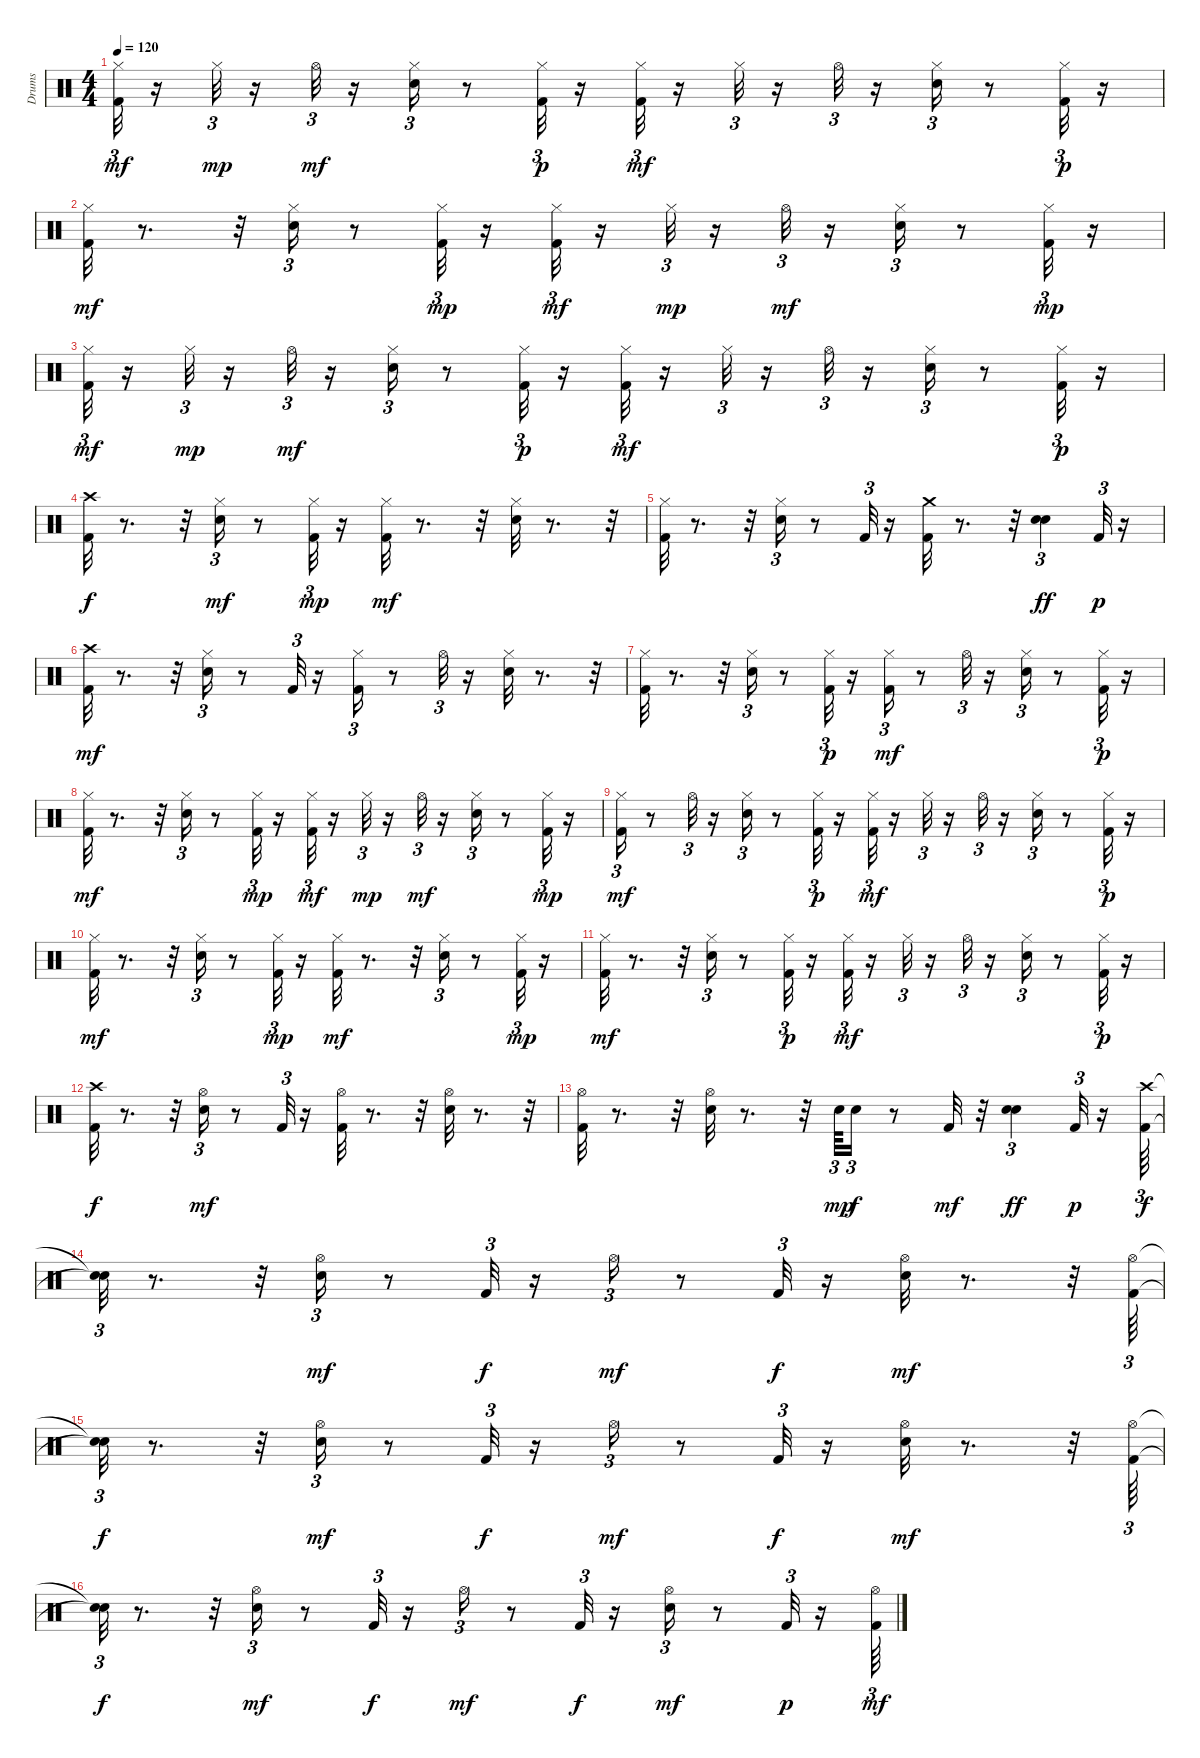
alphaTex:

\track ("Drums" "Drums") {instrument percussion}
\staff {score}
\articulation defaults
\ts (4 4)
\tempo 120
\clef neutral
\ks c
("Kick (hit) 2" "Hi-Hat (closed)").32{tu (3 2) dy mf} r.16 "Hi-Hat (closed)".32{tu (3 2) dy mp} r.16 "Hi-Hat (open)".32{tu (3 2) dy mf} r.16 ("Electric Snare (hit)" "Hi-Hat (closed)").16{tu (3 2)} r.8 ("Kick (hit) 2" "Hi-Hat (closed)").32{tu (3 2) dy p} r.16 ("Kick (hit) 2" "Hi-Hat (closed)").32{tu (3 2) dy mf} r.16 "Hi-Hat (closed)".32{tu (3 2)} r.16 "Hi-Hat (open)".32{tu (3 2)} r.16 ("Electric Snare (hit)" "Hi-Hat (closed)").16{tu (3 2)} r.8 ("Kick (hit) 2" "Hi-Hat (closed)").32{tu (3 2) dy p} r.16 |
("Kick (hit) 2" "Hi-Hat (closed)").32{dy mf} r.8{d} r.32 ("Electric Snare (hit)" "Hi-Hat (closed)").16{tu (3 2)} r.8 ("Kick (hit) 2" "Hi-Hat (closed)").32{tu (3 2) dy mp} r.16 ("Kick (hit) 2" "Hi-Hat (closed)").32{tu (3 2) dy mf} r.16 "Hi-Hat (closed)".32{tu (3 2) dy mp} r.16 "Hi-Hat (open)".32{tu (3 2) dy mf} r.16 ("Electric Snare (hit)" "Hi-Hat (closed)").16{tu (3 2)} r.8 ("Kick (hit) 2" "Hi-Hat (closed)").32{tu (3 2) dy mp} r.16 |
("Kick (hit) 2" "Hi-Hat (closed)").32{tu (3 2) dy mf} r.16 "Hi-Hat (closed)".32{tu (3 2) dy mp} r.16 "Hi-Hat (open)".32{tu (3 2) dy mf} r.16 ("Electric Snare (hit)" "Hi-Hat (closed)").16{tu (3 2)} r.8 ("Kick (hit) 2" "Hi-Hat (closed)").32{tu (3 2) dy p} r.16 ("Kick (hit) 2" "Hi-Hat (closed)").32{tu (3 2) dy mf} r.16 "Hi-Hat (closed)".32{tu (3 2)} r.16 "Hi-Hat (open)".32{tu (3 2)} r.16 ("Electric Snare (hit)" "Hi-Hat (closed)").16{tu (3 2)} r.8 ("Kick (hit) 2" "Hi-Hat (closed)").32{tu (3 2) dy p} r.16 |
("Kick (hit) 2" "Crash high (hit)").32{dy f} r.8{d} r.32 ("Electric Snare (hit)" "Hi-Hat (closed)").16{tu (3 2) dy mf} r.8 ("Kick (hit) 2" "Hi-Hat (closed)").32{tu (3 2) dy mp} r.16 ("Kick (hit) 2" "Hi-Hat (closed)").32{dy mf} r.8{d} r.32 ("Electric Snare (hit)" "Hi-Hat (closed)").32 r.8{d} r.32 |
("Kick (hit) 2" "Hi-Hat (closed)").32 r.8{d} r.32 ("Electric Snare (hit)" "Hi-Hat (closed)").16{tu (3 2)} r.8 "Kick (hit) 2".32{tu (3 2)} r.16 ("Kick (hit) 2" "Crash medium (hit)").32 r.8{d} r.32 ("Electric Snare (hit)" "Electric Snare (hit)").4{tu (3 2) dy ff} "Kick (hit) 2".32{tu (3 2) dy p} r.16 |
("Kick (hit) 2" "Crash high (hit)").32{dy mf} r.8{d} r.32 ("Electric Snare (hit)" "Hi-Hat (closed)").16{tu (3 2)} r.8 "Kick (hit) 2".32{tu (3 2)} r.16 ("Kick (hit) 2" "Hi-Hat (closed)").16{tu (3 2)} r.8 "Hi-Hat (open)".32{tu (3 2)} r.16 ("Electric Snare (hit)" "Hi-Hat (closed)").32 r.8{d} r.32 |
("Kick (hit) 2" "Hi-Hat (closed)").32 r.8{d} r.32 ("Electric Snare (hit)" "Hi-Hat (closed)").16{tu (3 2)} r.8 ("Kick (hit) 2" "Hi-Hat (closed)").32{tu (3 2) dy p} r.16 ("Kick (hit) 2" "Hi-Hat (closed)").16{tu (3 2) dy mf} r.8 "Hi-Hat (open)".32{tu (3 2)} r.16 ("Electric Snare (hit)" "Hi-Hat (closed)").16{tu (3 2)} r.8 ("Kick (hit) 2" "Hi-Hat (closed)").32{tu (3 2) dy p} r.16 |
("Kick (hit) 2" "Hi-Hat (closed)").32{dy mf} r.8{d} r.32 ("Electric Snare (hit)" "Hi-Hat (closed)").16{tu (3 2)} r.8 ("Kick (hit) 2" "Hi-Hat (closed)").32{tu (3 2) dy mp} r.16 ("Kick (hit) 2" "Hi-Hat (closed)").32{tu (3 2) dy mf} r.16 "Hi-Hat (closed)".32{tu (3 2) dy mp} r.16 "Hi-Hat (open)".32{tu (3 2) dy mf} r.16 ("Electric Snare (hit)" "Hi-Hat (closed)").16{tu (3 2)} r.8 ("Kick (hit) 2" "Hi-Hat (closed)").32{tu (3 2) dy mp} r.16 |
("Kick (hit) 2" "Hi-Hat (closed)").16{tu (3 2) dy mf} r.8 "Hi-Hat (open)".32{tu (3 2)} r.16 ("Electric Snare (hit)" "Hi-Hat (closed)").16{tu (3 2)} r.8 ("Kick (hit) 2" "Hi-Hat (closed)").32{tu (3 2) dy p} r.16 ("Kick (hit) 2" "Hi-Hat (closed)").32{tu (3 2) dy mf} r.16 "Hi-Hat (closed)".32{tu (3 2)} r.16 "Hi-Hat (open)".32{tu (3 2)} r.16 ("Electric Snare (hit)" "Hi-Hat (closed)").16{tu (3 2)} r.8 ("Kick (hit) 2" "Hi-Hat (closed)").32{tu (3 2) dy p} r.16 |
("Kick (hit) 2" "Hi-Hat (closed)").32{dy mf} r.8{d} r.32 ("Electric Snare (hit)" "Hi-Hat (closed)").16{tu (3 2)} r.8 ("Kick (hit) 2" "Hi-Hat (closed)").32{tu (3 2) dy mp} r.16 ("Kick (hit) 2" "Hi-Hat (closed)").32{dy mf} r.8{d} r.32 ("Electric Snare (hit)" "Hi-Hat (closed)").16{tu (3 2)} r.8 ("Kick (hit) 2" "Hi-Hat (closed)").32{tu (3 2) dy mp} r.16 |
("Kick (hit) 2" "Hi-Hat (closed)").32{dy mf} r.8{d} r.32 ("Electric Snare (hit)" "Hi-Hat (closed)").16{tu (3 2)} r.8 ("Kick (hit) 2" "Hi-Hat (closed)").32{tu (3 2) dy p} r.16 ("Kick (hit) 2" "Hi-Hat (closed)").32{tu (3 2) dy mf} r.16 "Hi-Hat (closed)".32{tu (3 2)} r.16 "Hi-Hat (open)".32{tu (3 2)} r.16 ("Electric Snare (hit)" "Hi-Hat (closed)").16{tu (3 2)} r.8 ("Kick (hit) 2" "Hi-Hat (closed)").32{tu (3 2) dy p} r.16 |
("Kick (hit) 2" "Crash high (hit)").32{dy f} r.8{d} r.32 ("Electric Snare (hit)" "Hi-Hat (open)").16{tu (3 2) dy mf} r.8 "Kick (hit) 2".32{tu (3 2)} r.16 ("Kick (hit) 2" "Hi-Hat (open)").32 r.8{d} r.32 ("Electric Snare (hit)" "Hi-Hat (open)").32 r.8{d} r.32 |
("Kick (hit) 2" "Hi-Hat (open)").32 r.8{d} r.32 ("Electric Snare (hit)" "Hi-Hat (open)").32 r.8{d} r.32 "Electric Snare (hit)".64{tu (3 2) dy mp} "Electric Snare (hit)".16{tu (3 2) dy f} r.8 "Kick (hit) 2".32{dy mf} r.32 ("Electric Snare (hit)" "Electric Snare (hit)").4{tu (3 2) dy ff} "Kick (hit) 2".32{tu (3 2) dy p} r.16 ("Kick (hit) 2" "Crash high (hit)").64{tu (3 2) dy f} |
("Snare (hit)"{t} "Snare (hit)"{t}).32{tu (3 2)} r.8{d} r.32 ("Electric Snare (hit)" "Hi-Hat (open)").16{tu (3 2) dy mf} r.8 "Kick (hit) 2".32{tu (3 2) dy f} r.16 "Hi-Hat (open)".16{tu (3 2) dy mf} r.8 "Kick (hit) 2".32{tu (3 2) dy f} r.16 ("Electric Snare (hit)" "Hi-Hat (open)").32{dy mf} r.8{d} r.32 ("Kick (hit) 2" "Hi-Hat (open)").64{tu (3 2)} |
("Snare (hit)"{t} "Snare (hit)"{t}).32{tu (3 2) dy f} r.8{d} r.32 ("Electric Snare (hit)" "Hi-Hat (open)").16{tu (3 2) dy mf} r.8 "Kick (hit) 2".32{tu (3 2) dy f} r.16 "Hi-Hat (open)".16{tu (3 2) dy mf} r.8 "Kick (hit) 2".32{tu (3 2) dy f} r.16 ("Electric Snare (hit)" "Hi-Hat (open)").32{dy mf} r.8{d} r.32 ("Kick (hit) 2" "Hi-Hat (open)").64{tu (3 2)} |
("Snare (hit)"{t} "Snare (hit)"{t}).32{tu (3 2) dy f} r.8{d} r.32 ("Electric Snare (hit)" "Hi-Hat (open)").16{tu (3 2) dy mf} r.8 "Kick (hit) 2".32{tu (3 2) dy f} r.16 "Hi-Hat (open)".16{tu (3 2) dy mf} r.8 "Kick (hit) 2".32{tu (3 2) dy f} r.16 ("Electric Snare (hit)" "Hi-Hat (open)").16{tu (3 2) dy mf} r.8 "Kick (hit) 2".32{tu (3 2) dy p} r.16 ("Kick (hit) 2" "Hi-Hat (open)").64{tu (3 2) dy mf}
